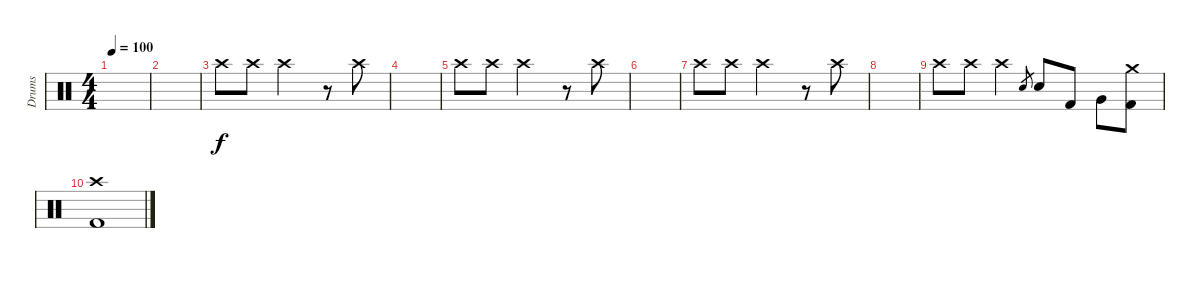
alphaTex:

\track ("Drums" "Drums") {instrument percussion}
\staff {score}
\articulation defaults
\ts (4 4)
\tempo 100
\clef neutral
\ks c
|
|
"Crash high (hit)".8 "Crash high (hit)".8 "Crash high (hit)".2 r.8 "Crash high (hit)".8 |
|
"Crash high (hit)".8 "Crash high (hit)".8 "Crash high (hit)".2 r.8 "Crash high (hit)".8 |
|
"Crash high (hit)".8 "Crash high (hit)".8 "Crash high (hit)".2 r.8 "Crash high (hit)".8 |
|
"Crash high (hit)".8 "Crash high (hit)".8 "Crash high (hit)".4 "Snare (hit) 2".8{gr} "Snare (hit) 2".8 "Kick (hit) 2".8 "Very Low Tom (hit)".8 ("Crash medium (hit)" "Kick (hit) 2").8 |
("Crash high (hit)" "Kick (hit) 2").1
